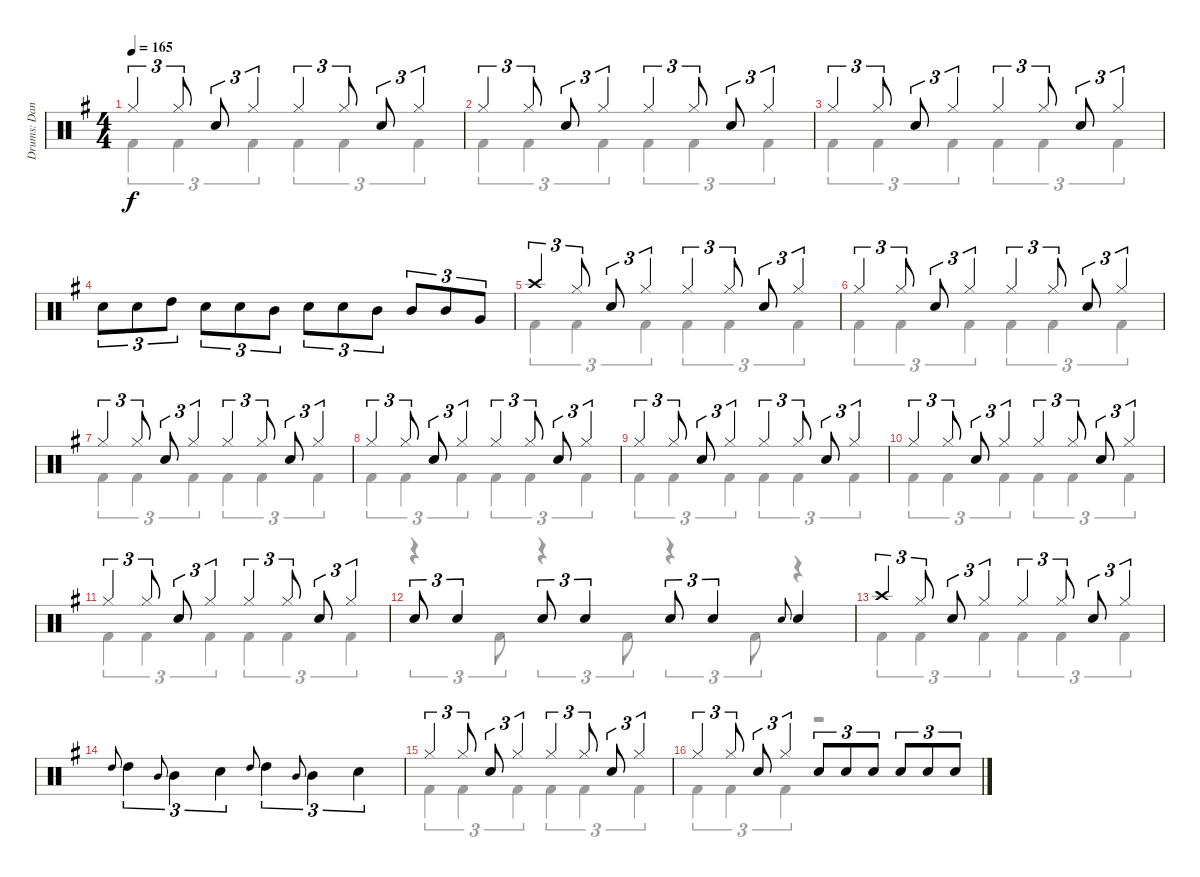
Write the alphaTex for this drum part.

\track ("Drums: Dana" "Drums: Dan") {instrument percussion}
\staff {score}
\articulation defaults
\voice
\ts (4 4)
\tempo 165
\clef neutral
\ks g "Hi-Hat (closed)".4{tu (3 2) dy f} "Hi-Hat (closed)".8{tu (3 2)} "Snare (hit) 2".8{tu (3 2)} "Hi-Hat (closed)".4{tu (3 2)} "Hi-Hat (closed)".4{tu (3 2)} "Hi-Hat (closed)".8{tu (3 2)} "Snare (hit) 2".8{tu (3 2)} "Hi-Hat (closed)".4{tu (3 2)}
|
"Hi-Hat (closed)".4{tu (3 2)} "Hi-Hat (closed)".8{tu (3 2)} "Snare (hit) 2".8{tu (3 2)} "Hi-Hat (closed)".4{tu (3 2)} "Hi-Hat (closed)".4{tu (3 2)} "Hi-Hat (closed)".8{tu (3 2)} "Snare (hit) 2".8{tu (3 2)} "Hi-Hat (closed)".4{tu (3 2)} |
"Hi-Hat (closed)".4{tu (3 2)} "Hi-Hat (closed)".8{tu (3 2)} "Snare (hit) 2".8{tu (3 2)} "Hi-Hat (closed)".4{tu (3 2)} "Hi-Hat (closed)".4{tu (3 2)} "Hi-Hat (closed)".8{tu (3 2)} "Snare (hit) 2".8{tu (3 2)} "Hi-Hat (closed)".4{tu (3 2)} |
"Snare (hit) 2".8{tu (3 2)} "Snare (hit) 2".8{tu (3 2)} "High Tom (hit)".8{tu (3 2)} "Snare (hit) 2".8{tu (3 2)} "Snare (hit) 2".8{tu (3 2)} "Mid Tom (hit)".8{tu (3 2)} "Snare (hit) 2".8{tu (3 2)} "Snare (hit) 2".8{tu (3 2)} "Mid Tom (hit)".8{tu (3 2)} "Mid Tom (hit)".8{tu (3 2)} "Mid Tom (hit)".8{tu (3 2)} "Very Low Tom (hit)".8{tu (3 2)} |
"Crash high (hit)".4{tu (3 2)} "Hi-Hat (closed)".8{tu (3 2)} "Snare (hit) 2".8{tu (3 2)} "Hi-Hat (closed)".4{tu (3 2)} "Hi-Hat (closed)".4{tu (3 2)} "Hi-Hat (closed)".8{tu (3 2)} "Snare (hit) 2".8{tu (3 2)} "Hi-Hat (closed)".4{tu (3 2)} |
"Hi-Hat (closed)".4{tu (3 2)} "Hi-Hat (closed)".8{tu (3 2)} "Snare (hit) 2".8{tu (3 2)} "Hi-Hat (closed)".4{tu (3 2)} "Hi-Hat (closed)".4{tu (3 2)} "Hi-Hat (closed)".8{tu (3 2)} "Snare (hit) 2".8{tu (3 2)} "Hi-Hat (closed)".4{tu (3 2)} |
"Hi-Hat (closed)".4{tu (3 2)} "Hi-Hat (closed)".8{tu (3 2)} "Snare (hit) 2".8{tu (3 2)} "Hi-Hat (closed)".4{tu (3 2)} "Hi-Hat (closed)".4{tu (3 2)} "Hi-Hat (closed)".8{tu (3 2)} "Snare (hit) 2".8{tu (3 2)} "Hi-Hat (closed)".4{tu (3 2)} |
"Hi-Hat (closed)".4{tu (3 2)} "Hi-Hat (closed)".8{tu (3 2)} "Snare (hit) 2".8{tu (3 2)} "Hi-Hat (closed)".4{tu (3 2)} "Hi-Hat (closed)".4{tu (3 2)} "Hi-Hat (closed)".8{tu (3 2)} "Snare (hit) 2".8{tu (3 2)} "Hi-Hat (closed)".4{tu (3 2)} |
"Hi-Hat (closed)".4{tu (3 2)} "Hi-Hat (closed)".8{tu (3 2)} "Snare (hit) 2".8{tu (3 2)} "Hi-Hat (closed)".4{tu (3 2)} "Hi-Hat (closed)".4{tu (3 2)} "Hi-Hat (closed)".8{tu (3 2)} "Snare (hit) 2".8{tu (3 2)} "Hi-Hat (closed)".4{tu (3 2)} |
"Hi-Hat (closed)".4{tu (3 2)} "Hi-Hat (closed)".8{tu (3 2)} "Snare (hit) 2".8{tu (3 2)} "Hi-Hat (closed)".4{tu (3 2)} "Hi-Hat (closed)".4{tu (3 2)} "Hi-Hat (closed)".8{tu (3 2)} "Snare (hit) 2".8{tu (3 2)} "Hi-Hat (closed)".4{tu (3 2)} |
"Hi-Hat (closed)".4{tu (3 2)} "Hi-Hat (closed)".8{tu (3 2)} "Snare (hit) 2".8{tu (3 2)} "Hi-Hat (closed)".4{tu (3 2)} "Hi-Hat (closed)".4{tu (3 2)} "Hi-Hat (closed)".8{tu (3 2)} "Snare (hit) 2".8{tu (3 2)} "Hi-Hat (closed)".4{tu (3 2)} |
"Snare (hit) 2".8{tu (3 2)} "Snare (hit) 2".4{tu (3 2)} "Snare (hit) 2".8{tu (3 2)} "Snare (hit) 2".4{tu (3 2)} "Snare (hit) 2".8{tu (3 2)} "Snare (hit) 2".4{tu (3 2)} "Electric Snare (hit)".8{gr onbeat} "Snare (hit) 2".4 |
"Crash high (hit)".4{tu (3 2)} "Hi-Hat (closed)".8{tu (3 2)} "Snare (hit) 2".8{tu (3 2)} "Hi-Hat (closed)".4{tu (3 2)} "Hi-Hat (closed)".4{tu (3 2)} "Hi-Hat (closed)".8{tu (3 2)} "Snare (hit) 2".8{tu (3 2)} "Hi-Hat (closed)".4{tu (3 2)} |
"High Tom (hit)".8{gr onbeat} "High Tom (hit)".4{tu (3 2)} "Mid Tom (hit)".8{gr onbeat} "Mid Tom (hit)".4{tu (3 2)} "Snare (hit) 2".4{tu (3 2)} "High Tom (hit)".8{gr onbeat} "High Tom (hit)".4{tu (3 2)} "Mid Tom (hit)".8{gr onbeat} "Mid Tom (hit)".4{tu (3 2)} "Snare (hit) 2".4{tu (3 2)} |
"Hi-Hat (closed)".4{tu (3 2)} "Hi-Hat (closed)".8{tu (3 2)} "Snare (hit) 2".8{tu (3 2)} "Hi-Hat (closed)".4{tu (3 2)} "Hi-Hat (closed)".4{tu (3 2)} "Hi-Hat (closed)".8{tu (3 2)} "Snare (hit) 2".8{tu (3 2)} "Hi-Hat (closed)".4{tu (3 2)} |
"Hi-Hat (closed)".4{tu (3 2)} "Hi-Hat (closed)".8{tu (3 2)} "Snare (hit) 2".8{tu (3 2)} "Hi-Hat (closed)".4{tu (3 2)} "Snare (hit) 2".8{tu (3 2)} "Snare (hit) 2".8{tu (3 2)} "Snare (hit) 2".8{tu (3 2)} "Snare (hit) 2".8{tu (3 2)} "Snare (hit) 2".8{tu (3 2)} "Snare (hit) 2".8{tu (3 2)}
\voice
\clef neutral
\ottava regular
\simile none
\ks g "Kick (hit) 2".4{tu (3 2) dy f} "Kick (hit) 2".4{tu (3 2)} "Kick (hit) 2".4{tu (3 2)} "Kick (hit) 2".4{tu (3 2)} "Kick (hit) 2".4{tu (3 2)} "Kick (hit) 2".4{tu (3 2)}
|
"Kick (hit) 2".4{tu (3 2)} "Kick (hit) 2".4{tu (3 2)} "Kick (hit) 2".4{tu (3 2)} "Kick (hit) 2".4{tu (3 2)} "Kick (hit) 2".4{tu (3 2)} "Kick (hit) 2".4{tu (3 2)} |
"Kick (hit) 2".4{tu (3 2)} "Kick (hit) 2".4{tu (3 2)} "Kick (hit) 2".4{tu (3 2)} "Kick (hit) 2".4{tu (3 2)} "Kick (hit) 2".4{tu (3 2)} "Kick (hit) 2".4{tu (3 2)} |
|
"Kick (hit) 2".4{tu (3 2)} "Kick (hit) 2".4{tu (3 2)} "Kick (hit) 2".4{tu (3 2)} "Kick (hit) 2".4{tu (3 2)} "Kick (hit) 2".4{tu (3 2)} "Kick (hit) 2".4{tu (3 2)} |
"Kick (hit) 2".4{tu (3 2)} "Kick (hit) 2".4{tu (3 2)} "Kick (hit) 2".4{tu (3 2)} "Kick (hit) 2".4{tu (3 2)} "Kick (hit) 2".4{tu (3 2)} "Kick (hit) 2".4{tu (3 2)} |
"Kick (hit) 2".4{tu (3 2)} "Kick (hit) 2".4{tu (3 2)} "Kick (hit) 2".4{tu (3 2)} "Kick (hit) 2".4{tu (3 2)} "Kick (hit) 2".4{tu (3 2)} "Kick (hit) 2".4{tu (3 2)} |
"Kick (hit) 2".4{tu (3 2)} "Kick (hit) 2".4{tu (3 2)} "Kick (hit) 2".4{tu (3 2)} "Kick (hit) 2".4{tu (3 2)} "Kick (hit) 2".4{tu (3 2)} "Kick (hit) 2".4{tu (3 2)} |
"Kick (hit) 2".4{tu (3 2)} "Kick (hit) 2".4{tu (3 2)} "Kick (hit) 2".4{tu (3 2)} "Kick (hit) 2".4{tu (3 2)} "Kick (hit) 2".4{tu (3 2)} "Kick (hit) 2".4{tu (3 2)} |
"Kick (hit) 2".4{tu (3 2)} "Kick (hit) 2".4{tu (3 2)} "Kick (hit) 2".4{tu (3 2)} "Kick (hit) 2".4{tu (3 2)} "Kick (hit) 2".4{tu (3 2)} "Kick (hit) 2".4{tu (3 2)} |
"Kick (hit) 2".4{tu (3 2)} "Kick (hit) 2".4{tu (3 2)} "Kick (hit) 2".4{tu (3 2)} "Kick (hit) 2".4{tu (3 2)} "Kick (hit) 2".4{tu (3 2)} "Kick (hit) 2".4{tu (3 2)} |
r.4{tu (3 2)} "Kick (hit) 2".8{tu (3 2)} r.4{tu (3 2)} "Kick (hit) 2".8{tu (3 2)} r.4{tu (3 2)} "Kick (hit) 2".8{tu (3 2)} r.4 |
"Kick (hit) 2".4{tu (3 2)} "Kick (hit) 2".4{tu (3 2)} "Kick (hit) 2".4{tu (3 2)} "Kick (hit) 2".4{tu (3 2)} "Kick (hit) 2".4{tu (3 2)} "Kick (hit) 2".4{tu (3 2)} |
|
"Kick (hit) 2".4{tu (3 2)} "Kick (hit) 2".4{tu (3 2)} "Kick (hit) 2".4{tu (3 2)} "Kick (hit) 2".4{tu (3 2)} "Kick (hit) 2".4{tu (3 2)} "Kick (hit) 2".4{tu (3 2)} |
"Kick (hit) 2".4{tu (3 2)} "Kick (hit) 2".4{tu (3 2)} "Kick (hit) 2".4{tu (3 2)} r.2
